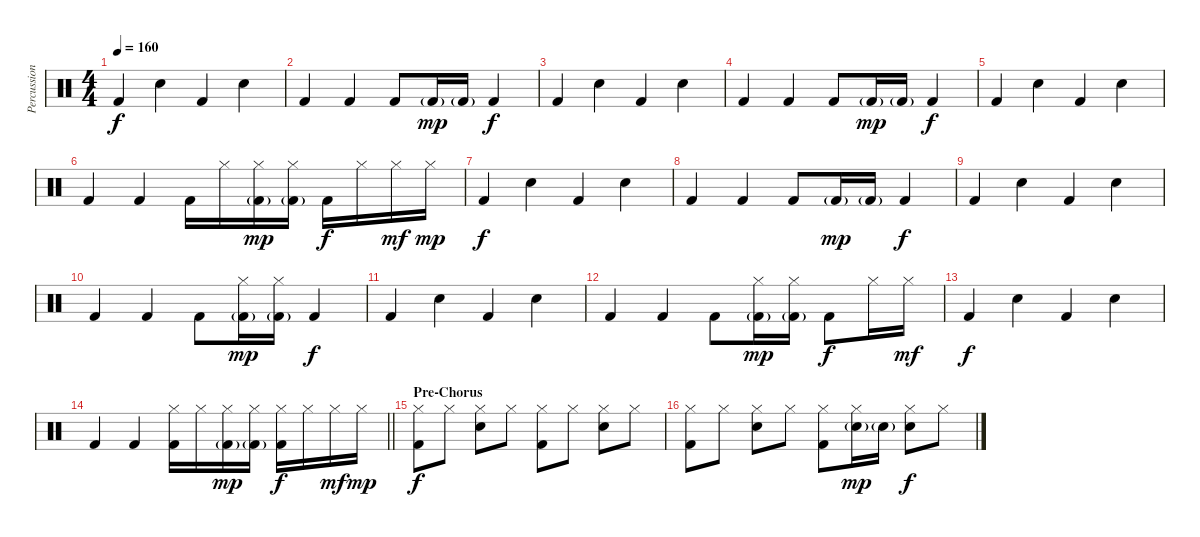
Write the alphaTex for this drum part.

\track ("Percussion" "Percussion") {instrument percussion}
\staff {score}
\articulation defaults
\ts (4 4)
\tempo 160
\clef neutral
\ks c "Kick (hit) 2".4{dy f} "Snare (hit) 2".4 "Kick (hit) 2".4 "Snare (hit) 2".4
|
"Kick (hit) 2".4 "Kick (hit) 2".4 "Kick (hit) 2".8 "Kick (hit) 2"{g}.16{dy mp} "Kick (hit) 2"{g}.16 "Kick (hit) 2".4{dy f} |
"Kick (hit) 2".4 "Snare (hit) 2".4 "Kick (hit) 2".4 "Snare (hit) 2".4 |
"Kick (hit) 2".4 "Kick (hit) 2".4 "Kick (hit) 2".8 "Kick (hit) 2"{g}.16{dy mp} "Kick (hit) 2"{g}.16 "Kick (hit) 2".4{dy f} |
"Kick (hit) 2".4 "Snare (hit) 2".4 "Kick (hit) 2".4 "Snare (hit) 2".4 |
"Kick (hit) 2".4 "Kick (hit) 2".4 "Kick (hit) 2".16 "Hi-Hat (closed)".16 ("Hi-Hat (closed)" "Kick (hit) 2"{g}).16{dy mp} ("Hi-Hat (closed)" "Kick (hit) 2"{g}).16 "Kick (hit) 2".16{dy f} "Hi-Hat (closed)".16 "Hi-Hat (closed)".16{dy mf} "Hi-Hat (closed)".16{dy mp} |
"Kick (hit) 2".4{dy f} "Snare (hit) 2".4 "Kick (hit) 2".4 "Snare (hit) 2".4 |
"Kick (hit) 2".4 "Kick (hit) 2".4 "Kick (hit) 2".8 "Kick (hit) 2"{g}.16{dy mp} "Kick (hit) 2"{g}.16 "Kick (hit) 2".4{dy f} |
"Kick (hit) 2".4 "Snare (hit) 2".4 "Kick (hit) 2".4 "Snare (hit) 2".4 |
"Kick (hit) 2".4 "Kick (hit) 2".4 "Kick (hit) 2".8 ("Hi-Hat (closed)" "Kick (hit) 2"{g}).16{dy mp} ("Hi-Hat (closed)" "Kick (hit) 2"{g}).16 "Kick (hit) 2".4{dy f} |
"Kick (hit) 2".4 "Snare (hit) 2".4 "Kick (hit) 2".4 "Snare (hit) 2".4 |
"Kick (hit) 2".4 "Kick (hit) 2".4 "Kick (hit) 2".8 ("Hi-Hat (closed)" "Kick (hit) 2"{g}).16{dy mp} ("Hi-Hat (closed)" "Kick (hit) 2"{g}).16 "Kick (hit) 2".8{dy f} "Hi-Hat (closed)".16 "Hi-Hat (closed)".16{dy mf} |
"Kick (hit) 2".4{dy f} "Snare (hit) 2".4 "Kick (hit) 2".4 "Snare (hit) 2".4 |
\barLineRight lightlight "Kick (hit) 2".4 "Kick (hit) 2".4
("Hi-Hat (closed)" "Kick (hit) 2").16 "Hi-Hat (closed)".16 ("Hi-Hat (closed)" "Kick (hit) 2"{g}).16{dy mp} ("Hi-Hat (closed)" "Kick (hit) 2"{g}).16 ("Hi-Hat (closed)" "Kick (hit) 2").16{dy f} "Hi-Hat (closed)".16 "Hi-Hat (closed)".16{dy mf} "Hi-Hat (closed)".16{dy mp} |
\section ("" "Pre-Chorus")
("Hi-Hat (closed)" "Kick (hit) 2").8{dy f} "Hi-Hat (closed)".8 ("Hi-Hat (closed)" "Snare (hit) 2").8 "Hi-Hat (closed)".8 ("Hi-Hat (closed)" "Kick (hit) 2").8 "Hi-Hat (closed)".8 ("Hi-Hat (closed)" "Snare (hit) 2").8 "Hi-Hat (closed)".8 |
("Hi-Hat (closed)" "Kick (hit) 2").8 "Hi-Hat (closed)".8 ("Hi-Hat (closed)" "Snare (hit) 2").8 "Hi-Hat (closed)".8 ("Hi-Hat (closed)" "Kick (hit) 2").8 ("Hi-Hat (closed)" "Snare (hit) 2"{g}).16{dy mp} "Snare (hit) 2"{g}.16 ("Hi-Hat (closed)" "Snare (hit) 2").8{dy f} "Hi-Hat (closed)".8
